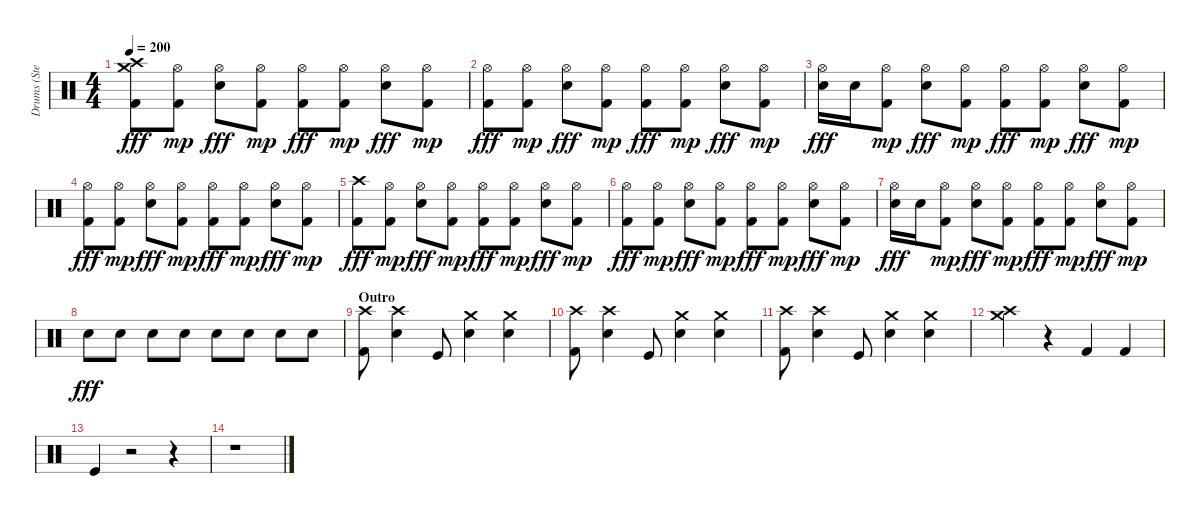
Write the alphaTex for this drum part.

\track ("Drums (Stevo32)" "Drums (Ste") {instrument percussion}
\staff {score}
\articulation defaults
\ts (4 4)
\tempo 200
\clef neutral
\ks c
("Kick (hit) 2" "Crash high (hit)" "Crash medium (hit)").8{dy fff} ("Kick (hit) 2" "Hi-Hat (open)").8{dy mp} ("Electric Snare (hit)" "Hi-Hat (open)").8{dy fff} ("Kick (hit) 2" "Hi-Hat (open)").8{dy mp} ("Kick (hit) 2" "Hi-Hat (open)").8{dy fff} ("Kick (hit) 2" "Hi-Hat (open)").8{dy mp} ("Electric Snare (hit)" "Hi-Hat (open)").8{dy fff} ("Kick (hit) 2" "Hi-Hat (open)").8{dy mp} |
("Kick (hit) 2" "Hi-Hat (open)").8{dy fff} ("Kick (hit) 2" "Hi-Hat (open)").8{dy mp} ("Electric Snare (hit)" "Hi-Hat (open)").8{dy fff} ("Kick (hit) 2" "Hi-Hat (open)").8{dy mp} ("Kick (hit) 2" "Hi-Hat (open)").8{dy fff} ("Kick (hit) 2" "Hi-Hat (open)").8{dy mp} ("Electric Snare (hit)" "Hi-Hat (open)").8{dy fff} ("Kick (hit) 2" "Hi-Hat (open)").8{dy mp} |
("Electric Snare (hit)" "Hi-Hat (open)").16{dy fff} "Electric Snare (hit)".16 ("Kick (hit) 2" "Hi-Hat (open)").8{dy mp} ("Electric Snare (hit)" "Hi-Hat (open)").8{dy fff} ("Kick (hit) 2" "Hi-Hat (open)").8{dy mp} ("Kick (hit) 2" "Hi-Hat (open)").8{dy fff} ("Kick (hit) 2" "Hi-Hat (open)").8{dy mp} ("Electric Snare (hit)" "Hi-Hat (open)").8{dy fff} ("Kick (hit) 2" "Hi-Hat (open)").8{dy mp} |
("Kick (hit) 2" "Hi-Hat (open)").8{dy fff} ("Kick (hit) 2" "Hi-Hat (open)").8{dy mp} ("Electric Snare (hit)" "Hi-Hat (open)").8{dy fff} ("Kick (hit) 2" "Hi-Hat (open)").8{dy mp} ("Kick (hit) 2" "Hi-Hat (open)").8{dy fff} ("Kick (hit) 2" "Hi-Hat (open)").8{dy mp} ("Electric Snare (hit)" "Hi-Hat (open)").8{dy fff} ("Kick (hit) 2" "Hi-Hat (open)").8{dy mp} |
("Kick (hit) 2" "Crash high (hit)").8{dy fff} ("Kick (hit) 2" "Hi-Hat (open)").8{dy mp} ("Electric Snare (hit)" "Hi-Hat (open)").8{dy fff} ("Kick (hit) 2" "Hi-Hat (open)").8{dy mp} ("Kick (hit) 2" "Hi-Hat (open)").8{dy fff} ("Kick (hit) 2" "Hi-Hat (open)").8{dy mp} ("Electric Snare (hit)" "Hi-Hat (open)").8{dy fff} ("Kick (hit) 2" "Hi-Hat (open)").8{dy mp} |
("Kick (hit) 2" "Hi-Hat (open)").8{dy fff} ("Kick (hit) 2" "Hi-Hat (open)").8{dy mp} ("Electric Snare (hit)" "Hi-Hat (open)").8{dy fff} ("Kick (hit) 2" "Hi-Hat (open)").8{dy mp} ("Kick (hit) 2" "Hi-Hat (open)").8{dy fff} ("Kick (hit) 2" "Hi-Hat (open)").8{dy mp} ("Electric Snare (hit)" "Hi-Hat (open)").8{dy fff} ("Kick (hit) 2" "Hi-Hat (open)").8{dy mp} |
("Electric Snare (hit)" "Hi-Hat (open)").16{dy fff} "Electric Snare (hit)".16 ("Kick (hit) 2" "Hi-Hat (open)").8{dy mp} ("Electric Snare (hit)" "Hi-Hat (open)").8{dy fff} ("Kick (hit) 2" "Hi-Hat (open)").8{dy mp} ("Kick (hit) 2" "Hi-Hat (open)").8{dy fff} ("Kick (hit) 2" "Hi-Hat (open)").8{dy mp} ("Electric Snare (hit)" "Hi-Hat (open)").8{dy fff} ("Kick (hit) 2" "Hi-Hat (open)").8{dy mp} |
"Electric Snare (hit)".8{dy fff} "Electric Snare (hit)".8 "Electric Snare (hit)".8 "Electric Snare (hit)".8 "Electric Snare (hit)".8 "Electric Snare (hit)".8 "Electric Snare (hit)".8 "Electric Snare (hit)".8 |
\section ("" "Outro")
("Kick (hit) 2" "Crash high (hit)").8 ("Electric Snare (hit)" "Crash high (hit)").4 "Kick (hit)".8 ("Electric Snare (hit)" "Crash medium (hit)").4 ("Electric Snare (hit)" "Crash medium (hit)").4 |
("Kick (hit) 2" "Crash high (hit)").8 ("Electric Snare (hit)" "Crash high (hit)").4 "Kick (hit)".8 ("Electric Snare (hit)" "Crash medium (hit)").4 ("Electric Snare (hit)" "Crash medium (hit)").4 |
("Kick (hit) 2" "Crash high (hit)").8 ("Electric Snare (hit)" "Crash high (hit)").4 "Kick (hit)".8 ("Electric Snare (hit)" "Crash medium (hit)").4 ("Electric Snare (hit)" "Crash medium (hit)").4 |
("Crash high (hit)" "Crash medium (hit)").4 r.4 "Kick (hit) 2".4 "Kick (hit) 2".4 |
"Kick (hit)".4 r.2 r.4 |
r.1
